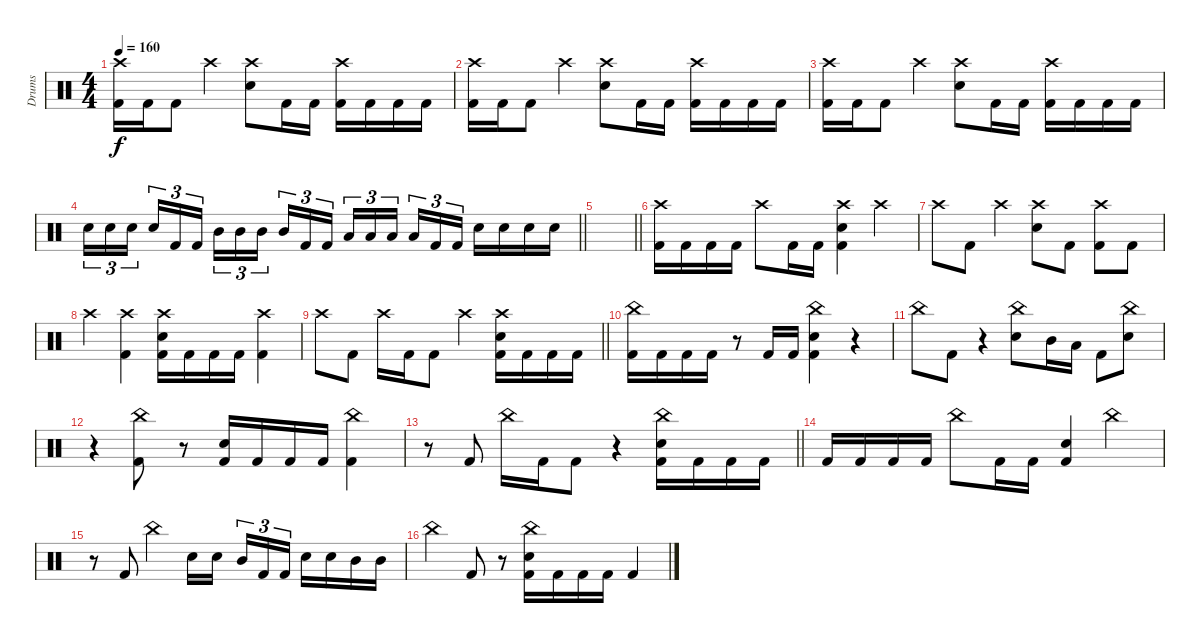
\track ("Drums" "Drums") {instrument percussion}
\staff {score}
\articulation defaults
\ts (4 4)
\tempo 160
\clef neutral
\ks c
("Crash high (hit)" "Kick (hit) 2").16{dy f} "Kick (hit) 2".16 "Kick (hit) 2".8 "Crash high (hit)".4 ("Crash high (hit)" "Electric Snare (hit)").8 "Kick (hit) 2".16 "Kick (hit) 2".16 ("Crash high (hit)" "Kick (hit) 2").16 "Kick (hit) 2".16 "Kick (hit) 2".16 "Kick (hit) 2".16 |
("Crash high (hit)" "Kick (hit) 2").16 "Kick (hit) 2".16 "Kick (hit) 2".8 "Crash high (hit)".4 ("Crash high (hit)" "Electric Snare (hit)").8 "Kick (hit) 2".16 "Kick (hit) 2".16 ("Crash high (hit)" "Kick (hit) 2").16 "Kick (hit) 2".16 "Kick (hit) 2".16 "Kick (hit) 2".16 |
("Crash high (hit)" "Kick (hit) 2").16 "Kick (hit) 2".16 "Kick (hit) 2".8 "Crash high (hit)".4 ("Crash high (hit)" "Electric Snare (hit)").8 "Kick (hit) 2".16 "Kick (hit) 2".16 ("Crash high (hit)" "Kick (hit) 2").16 "Kick (hit) 2".16 "Kick (hit) 2".16 "Kick (hit) 2".16 |
\barLineRight lightlight "Electric Snare (hit)".16{tu (3 2)} "Electric Snare (hit)".16{tu (3 2)} "Electric Snare (hit)".16{tu (3 2) beam splitsecondary} "Electric Snare (hit)".16{tu (3 2)} "Kick (hit) 2".16{tu (3 2)} "Kick (hit) 2".16{tu (3 2)} "Mid Tom (hit)".16{tu (3 2)} "Mid Tom (hit)".16{tu (3 2)} "Mid Tom (hit)".16{tu (3 2) beam splitsecondary} "Mid Tom (hit)".16{tu (3 2)} "Kick (hit) 2".16{tu (3 2)} "Kick (hit) 2".16{tu (3 2)} "Low Tom (hit)".16{tu (3 2)} "Low Tom (hit)".16{tu (3 2)} "Low Tom (hit)".16{tu (3 2) beam splitsecondary} "Low Tom (hit)".16{tu (3 2)} "Kick (hit) 2".16{tu (3 2)} "Kick (hit) 2".16{tu (3 2)} "Electric Snare (hit)".16 "Electric Snare (hit)".16 "Electric Snare (hit)".16 "Electric Snare (hit)".16
|
\barLineRight lightlight
|
("Crash high (hit)" "Kick (hit) 2").16 "Kick (hit) 2".16 "Kick (hit) 2".16 "Kick (hit) 2".16 "Crash high (hit)".8 "Kick (hit) 2".16 "Kick (hit) 2".16 ("Crash high (hit)" "Electric Snare (hit)" "Kick (hit) 2").4 "Crash high (hit)".4 |
"Crash high (hit)".8 "Kick (hit) 2".8 "Crash high (hit)".4 ("Crash high (hit)" "Electric Snare (hit)").8 "Kick (hit) 2".8 ("Crash high (hit)" "Kick (hit) 2").8 "Kick (hit) 2".8 |
"Crash high (hit)".4 ("Crash high (hit)" "Kick (hit) 2").4 ("Crash high (hit)" "Electric Snare (hit)" "Kick (hit) 2").16 "Kick (hit) 2".16 "Kick (hit) 2".16 "Kick (hit) 2".16 ("Crash high (hit)" "Kick (hit) 2").4 |
\barLineRight lightlight "Crash high (hit)".8 "Kick (hit) 2".8 "Crash high (hit)".16 "Kick (hit) 2".16 "Kick (hit) 2".8 "Crash high (hit)".4
("Crash high (hit)" "Electric Snare (hit)" "Kick (hit) 2").16 "Kick (hit) 2".16 "Kick (hit) 2".16 "Kick (hit) 2".16 |
("China (hit)" "Kick (hit) 2").16 "Kick (hit) 2".16 "Kick (hit) 2".16 "Kick (hit) 2".16 r.8 "Kick (hit) 2".16 "Kick (hit) 2".16 ("China (hit)" "Electric Snare (hit)" "Kick (hit) 2").4 r.4 |
"China (hit)".8 "Kick (hit) 2".8 r.4 ("China (hit)" "Electric Snare (hit)").8 "Mid Tom (hit)".16 "Low Tom (hit)".16 "Kick (hit) 2".8 ("China (hit)" "Electric Snare (hit)").8 |
r.4 ("China (hit)" "Kick (hit) 2").8 r.8 ("Electric Snare (hit)" "Kick (hit) 2").16 "Kick (hit) 2".16 "Kick (hit) 2".16 "Kick (hit) 2".16 ("China (hit)" "Kick (hit) 2").4 |
\barLineRight lightlight
r.8 "Kick (hit) 2".8 "China (hit)".16 "Kick (hit) 2".16 "Kick (hit) 2".8 r.4 ("China (hit)" "Electric Snare (hit)" "Kick (hit) 2").16 "Kick (hit) 2".16 "Kick (hit) 2".16 "Kick (hit) 2".16 |
"Kick (hit) 2".16 "Kick (hit) 2".16 "Kick (hit) 2".16 "Kick (hit) 2".16 "China (hit)".8 "Kick (hit) 2".16 "Kick (hit) 2".16 ("Electric Snare (hit)" "Kick (hit) 2").4 "China (hit)".4 |
r.8 "Kick (hit) 2".8 "China (hit)".4 "Electric Snare (hit)".16 "Electric Snare (hit)".16{beam splitsecondary} "Mid Tom (hit)".16{tu (3 2)} "Kick (hit) 2".16{tu (3 2)} "Kick (hit) 2".16{tu (3 2)} "Electric Snare (hit)".16 "Electric Snare (hit)".16 "Mid Tom (hit)".16 "Mid Tom (hit)".16 |
"China (hit)".4 "Kick (hit) 2".8 r.8 ("China (hit)" "Electric Snare (hit)" "Kick (hit) 2").16 "Kick (hit) 2".16 "Kick (hit) 2".16 "Kick (hit) 2".16 "Kick (hit) 2".4
